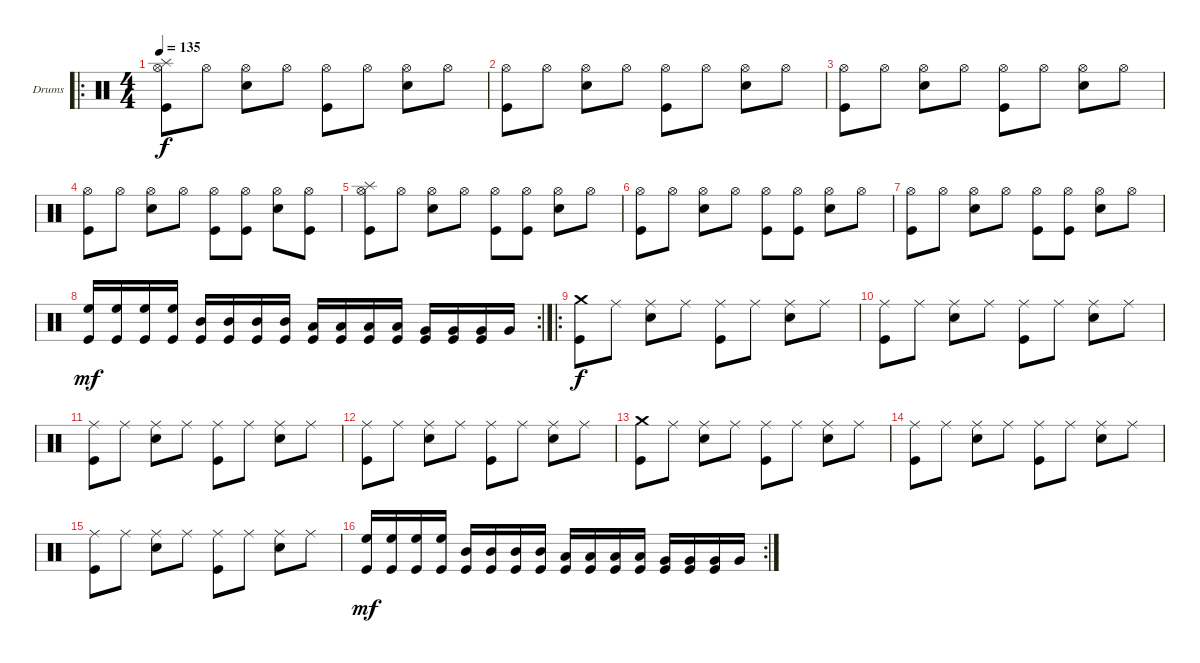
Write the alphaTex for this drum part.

\defaultSystemsLayout 4
\bracketExtendMode groupsimilarinstruments
\firstSystemTrackNameOrientation horizontal
\otherSystemsTrackNameOrientation horizontal
\track ("Drums" "Drums") {instrument percussion}
\staff {score}
\articulation defaults
\ro
\ts (4 4)
\tempo 135
\clef neutral
\ks c
("Hi-Hat (open)" "Kick (hit)" "Splash (hit)").8{dy f} "Hi-Hat (open)".8 ("Hi-Hat (open)" "Snare (hit) 2").8 "Hi-Hat (open)".8 ("Hi-Hat (open)" "Kick (hit)").8 "Hi-Hat (open)".8 ("Hi-Hat (open)" "Snare (hit) 2").8 "Hi-Hat (open)".8 |
("Hi-Hat (open)" "Kick (hit)").8 "Hi-Hat (open)".8 ("Hi-Hat (open)" "Snare (hit) 2").8 "Hi-Hat (open)".8 ("Hi-Hat (open)" "Kick (hit)").8 "Hi-Hat (open)".8 ("Hi-Hat (open)" "Snare (hit) 2").8 "Hi-Hat (open)".8 |
("Hi-Hat (open)" "Kick (hit)").8 "Hi-Hat (open)".8 ("Hi-Hat (open)" "Snare (hit) 2").8 "Hi-Hat (open)".8 ("Hi-Hat (open)" "Kick (hit)").8 "Hi-Hat (open)".8 ("Hi-Hat (open)" "Snare (hit) 2").8 "Hi-Hat (open)".8 |
("Hi-Hat (open)" "Kick (hit)").8 "Hi-Hat (open)".8 ("Hi-Hat (open)" "Snare (hit) 2").8 "Hi-Hat (open)".8 ("Hi-Hat (open)" "Kick (hit)").8 ("Hi-Hat (open)" "Kick (hit)").8 ("Hi-Hat (open)" "Snare (hit) 2").8 ("Hi-Hat (open)" "Kick (hit)").8 |
("Hi-Hat (open)" "Kick (hit)" "Splash (hit)").8 "Hi-Hat (open)".8 ("Hi-Hat (open)" "Snare (hit) 2").8 "Hi-Hat (open)".8 ("Hi-Hat (open)" "Kick (hit)").8 ("Hi-Hat (open)" "Kick (hit)").8 ("Hi-Hat (open)" "Snare (hit) 2").8 "Hi-Hat (open)".8 |
("Hi-Hat (open)" "Kick (hit)").8 "Hi-Hat (open)".8 ("Hi-Hat (open)" "Snare (hit) 2").8 "Hi-Hat (open)".8 ("Hi-Hat (open)" "Kick (hit)").8 ("Hi-Hat (open)" "Kick (hit)").8 ("Hi-Hat (open)" "Snare (hit) 2").8 "Hi-Hat (open)".8 |
("Hi-Hat (open)" "Kick (hit)").8 "Hi-Hat (open)".8 ("Hi-Hat (open)" "Snare (hit) 2").8 "Hi-Hat (open)".8 ("Hi-Hat (open)" "Kick (hit)").8 ("Hi-Hat (open)" "Kick (hit)").8 ("Hi-Hat (open)" "Snare (hit) 2").8 "Hi-Hat (open)".8 |
\rc 2
("High Floor Tom (hit)" "Kick (hit)").16{dy mf} ("High Floor Tom (hit)" "Kick (hit)").16 ("High Floor Tom (hit)" "Kick (hit)").16 ("High Floor Tom (hit)" "Kick (hit)").16 ("Mid Tom (hit)" "Kick (hit)").16 ("Mid Tom (hit)" "Kick (hit)").16 ("Mid Tom (hit)" "Kick (hit)").16 ("Mid Tom (hit)" "Kick (hit)").16 ("Low Tom (hit)" "Kick (hit)").16 ("Low Tom (hit)" "Kick (hit)").16 ("Low Tom (hit)" "Kick (hit)").16 ("Low Tom (hit)" "Kick (hit)").16 ("Very Low Tom (hit)" "Kick (hit)").16 ("Very Low Tom (hit)" "Kick (hit)").16 ("Very Low Tom (hit)" "Kick (hit)").16 "Very Low Tom (hit)".16 |
\ro
("Crash medium (hit)" "Kick (hit)").8{dy f} "Ride (middle)".8 ("Ride (middle)" "Snare (hit) 2").8 "Ride (middle)".8 ("Ride (middle)" "Kick (hit)").8 "Ride (middle)".8 ("Ride (middle)" "Snare (hit) 2").8 "Ride (middle)".8 |
("Ride (middle)" "Kick (hit)").8 "Ride (middle)".8 ("Ride (middle)" "Snare (hit) 2").8 "Ride (middle)".8 ("Ride (middle)" "Kick (hit)").8 "Ride (middle)".8 ("Ride (middle)" "Snare (hit) 2").8 "Ride (middle)".8 |
("Ride (middle)" "Kick (hit)").8 "Ride (middle)".8 ("Ride (middle)" "Snare (hit) 2").8 "Ride (middle)".8 ("Ride (middle)" "Kick (hit)").8 "Ride (middle)".8 ("Ride (middle)" "Snare (hit) 2").8 "Ride (middle)".8 |
("Ride (middle)" "Kick (hit)").8 "Ride (middle)".8 ("Ride (middle)" "Snare (hit) 2").8 "Ride (middle)".8 ("Ride (middle)" "Kick (hit)").8 "Ride (middle)".8 ("Ride (middle)" "Snare (hit) 2").8 "Ride (middle)".8 |
("Crash medium (hit)" "Kick (hit)").8 "Ride (middle)".8 ("Ride (middle)" "Snare (hit) 2").8 "Ride (middle)".8 ("Ride (middle)" "Kick (hit)").8 "Ride (middle)".8 ("Ride (middle)" "Snare (hit) 2").8 "Ride (middle)".8 |
("Ride (middle)" "Kick (hit)").8 "Ride (middle)".8 ("Ride (middle)" "Snare (hit) 2").8 "Ride (middle)".8 ("Ride (middle)" "Kick (hit)").8 "Ride (middle)".8 ("Ride (middle)" "Snare (hit) 2").8 "Ride (middle)".8 |
("Ride (middle)" "Kick (hit)").8 "Ride (middle)".8 ("Ride (middle)" "Snare (hit) 2").8 "Ride (middle)".8 ("Ride (middle)" "Kick (hit)").8 "Ride (middle)".8 ("Ride (middle)" "Snare (hit) 2").8 "Ride (middle)".8 |
\rc 2
("High Floor Tom (hit)" "Kick (hit)").16{dy mf} ("High Floor Tom (hit)" "Kick (hit)").16 ("High Floor Tom (hit)" "Kick (hit)").16 ("High Floor Tom (hit)" "Kick (hit)").16 ("Mid Tom (hit)" "Kick (hit)").16 ("Mid Tom (hit)" "Kick (hit)").16 ("Mid Tom (hit)" "Kick (hit)").16 ("Mid Tom (hit)" "Kick (hit)").16 ("Low Tom (hit)" "Kick (hit)").16 ("Low Tom (hit)" "Kick (hit)").16 ("Low Tom (hit)" "Kick (hit)").16 ("Low Tom (hit)" "Kick (hit)").16 ("Very Low Tom (hit)" "Kick (hit)").16 ("Very Low Tom (hit)" "Kick (hit)").16 ("Very Low Tom (hit)" "Kick (hit)").16 "Very Low Tom (hit)".16
